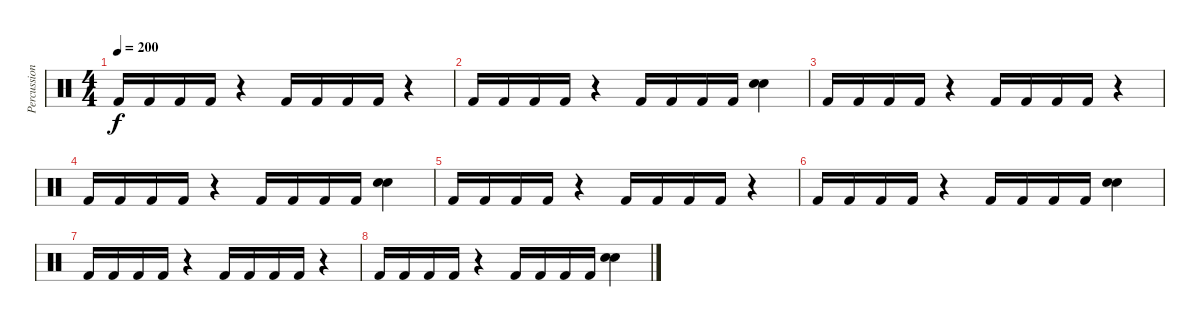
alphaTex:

\track ("Percussion" "Percussion") {instrument percussion}
\staff {score}
\articulation defaults
\ts (4 4)
\tempo 200
\clef neutral
\ks c "Kick (hit) 2".16{dy f} "Kick (hit) 2".16 "Kick (hit) 2".16 "Kick (hit) 2".16
r.4 "Kick (hit) 2".16 "Kick (hit) 2".16 "Kick (hit) 2".16 "Kick (hit) 2".16 r.4 |
"Kick (hit) 2".16 "Kick (hit) 2".16 "Kick (hit) 2".16 "Kick (hit) 2".16 r.4 "Kick (hit) 2".16 "Kick (hit) 2".16 "Kick (hit) 2".16 "Kick (hit) 2".16 ("Snare (hit) 2" "Snare (hit) 2").4 |
"Kick (hit) 2".16 "Kick (hit) 2".16 "Kick (hit) 2".16 "Kick (hit) 2".16 r.4 "Kick (hit) 2".16 "Kick (hit) 2".16 "Kick (hit) 2".16 "Kick (hit) 2".16 r.4 |
"Kick (hit) 2".16 "Kick (hit) 2".16 "Kick (hit) 2".16 "Kick (hit) 2".16 r.4 "Kick (hit) 2".16 "Kick (hit) 2".16 "Kick (hit) 2".16 "Kick (hit) 2".16 ("Snare (hit) 2" "Snare (hit) 2").4 |
"Kick (hit) 2".16 "Kick (hit) 2".16 "Kick (hit) 2".16 "Kick (hit) 2".16 r.4 "Kick (hit) 2".16 "Kick (hit) 2".16 "Kick (hit) 2".16 "Kick (hit) 2".16 r.4 |
"Kick (hit) 2".16 "Kick (hit) 2".16 "Kick (hit) 2".16 "Kick (hit) 2".16 r.4 "Kick (hit) 2".16 "Kick (hit) 2".16 "Kick (hit) 2".16 "Kick (hit) 2".16 ("Snare (hit) 2" "Snare (hit) 2").4 |
"Kick (hit) 2".16 "Kick (hit) 2".16 "Kick (hit) 2".16 "Kick (hit) 2".16 r.4 "Kick (hit) 2".16 "Kick (hit) 2".16 "Kick (hit) 2".16 "Kick (hit) 2".16 r.4 |
"Kick (hit) 2".16 "Kick (hit) 2".16 "Kick (hit) 2".16 "Kick (hit) 2".16 r.4 "Kick (hit) 2".16 "Kick (hit) 2".16 "Kick (hit) 2".16 "Kick (hit) 2".16 ("Snare (hit) 2" "Snare (hit) 2").4
